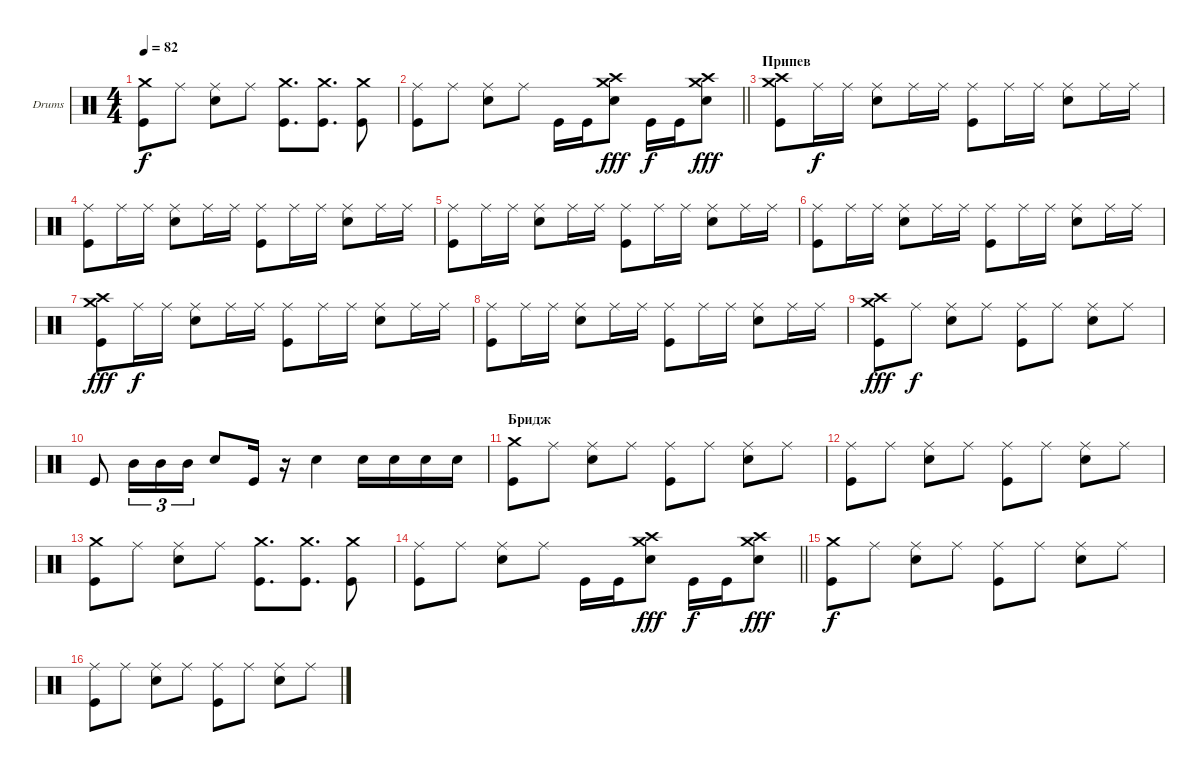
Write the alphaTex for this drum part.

\bracketExtendMode groupsimilarinstruments
\firstSystemTrackNameOrientation horizontal
\otherSystemsTrackNameOrientation horizontal
\track ("Александр Манякин" "Drums") {instrument percussion}
\staff {score}
\articulation defaults
\ts (4 4)
\tempo 82
\clef neutral
\ks c
("Kick (hit)" "Crash medium (hit)").8{dy f} "Ride (middle)".8 ("Snare (hit) 2" "Ride (middle)").8 "Ride (middle)".8 ("Kick (hit)" "Crash medium (hit)").8{d} ("Kick (hit)" "Crash medium (hit)").8{d} ("Kick (hit)" "Crash medium (hit)").8 |
\barLineRight lightlight
("Kick (hit)" "Ride (middle)").8 "Ride (middle)".8 ("Snare (hit) 2" "Ride (middle)").8 "Ride (middle)".8 "Kick (hit)".16 "Kick (hit)".16 ("Snare (hit) 2" "Crash medium (hit)" "Crash high (hit)").8{dy fff} "Kick (hit)".16{dy f} "Kick (hit)".16 ("Snare (hit) 2" "Crash medium (hit)" "Crash high (hit)").8{dy fff} |
\section ("" "Припев")
("Kick (hit)" "Crash medium (hit)" "Crash high (hit)").8 "Ride (middle)".16{dy f} "Ride (middle)".16 ("Snare (hit) 2" "Ride (middle)").8 "Ride (middle)".16 "Ride (middle)".16 ("Kick (hit)" "Ride (middle)").8 "Ride (middle)".16 "Ride (middle)".16 ("Snare (hit) 2" "Ride (middle)").8 "Ride (middle)".16 "Ride (middle)".16 |
("Kick (hit)" "Ride (middle)").8 "Ride (middle)".16 "Ride (middle)".16 ("Snare (hit) 2" "Ride (middle)").8 "Ride (middle)".16 "Ride (middle)".16 ("Kick (hit)" "Ride (middle)").8 "Ride (middle)".16 "Ride (middle)".16 ("Snare (hit) 2" "Ride (middle)").8 "Ride (middle)".16 "Ride (middle)".16 |
("Kick (hit)" "Ride (middle)").8 "Ride (middle)".16 "Ride (middle)".16 ("Snare (hit) 2" "Ride (middle)").8 "Ride (middle)".16 "Ride (middle)".16 ("Kick (hit)" "Ride (middle)").8 "Ride (middle)".16 "Ride (middle)".16 ("Snare (hit) 2" "Ride (middle)").8 "Ride (middle)".16 "Ride (middle)".16 |
("Kick (hit)" "Ride (middle)").8 "Ride (middle)".16 "Ride (middle)".16 ("Snare (hit) 2" "Ride (middle)").8 "Ride (middle)".16 "Ride (middle)".16 ("Kick (hit)" "Ride (middle)").8 "Ride (middle)".16 "Ride (middle)".16 ("Snare (hit) 2" "Ride (middle)").8 "Ride (middle)".16 "Ride (middle)".16 |
("Kick (hit)" "Crash medium (hit)" "Crash high (hit)").8{dy fff} "Ride (middle)".16{dy f} "Ride (middle)".16 ("Snare (hit) 2" "Ride (middle)").8 "Ride (middle)".16 "Ride (middle)".16 ("Kick (hit)" "Ride (middle)").8 "Ride (middle)".16 "Ride (middle)".16 ("Snare (hit) 2" "Ride (middle)").8 "Ride (middle)".16 "Ride (middle)".16 |
("Kick (hit)" "Ride (middle)").8 "Ride (middle)".16 "Ride (middle)".16 ("Snare (hit) 2" "Ride (middle)").8 "Ride (middle)".16 "Ride (middle)".16 ("Kick (hit)" "Ride (middle)").8 "Ride (middle)".16 "Ride (middle)".16 ("Snare (hit) 2" "Ride (middle)").8 "Ride (middle)".16 "Ride (middle)".16 |
("Kick (hit)" "Crash medium (hit)" "Crash high (hit)").8{dy fff} "Ride (middle)".8{dy f} ("Snare (hit) 2" "Ride (middle)").8 "Ride (middle)".8 ("Kick (hit)" "Ride (middle)").8 "Ride (middle)".8 ("Snare (hit) 2" "Ride (middle)").8 "Ride (middle)".8 |
"Kick (hit)".8 "Mid Tom (hit)".16{tu (3 2)} "Mid Tom (hit)".16{tu (3 2)} "Mid Tom (hit)".16{tu (3 2)} "Snare (hit) 2".8 "Kick (hit)".16 r.16 "Snare (hit) 2".4 "Snare (hit) 2".16 "Snare (hit) 2".16 "Snare (hit) 2".16 "Snare (hit) 2".16 |
\section ("" "Бридж")
("Kick (hit)" "Crash medium (hit)").8 "Ride (middle)".8 ("Snare (hit) 2" "Ride (middle)").8 "Ride (middle)".8 ("Kick (hit)" "Ride (middle)").8 "Ride (middle)".8 ("Snare (hit) 2" "Ride (middle)").8 "Ride (middle)".8 |
("Kick (hit)" "Ride (middle)").8 "Ride (middle)".8 ("Snare (hit) 2" "Ride (middle)").8 "Ride (middle)".8 ("Kick (hit)" "Ride (middle)").8 "Ride (middle)".8 ("Snare (hit) 2" "Ride (middle)").8 "Ride (middle)".8 |
("Kick (hit)" "Crash medium (hit)").8 "Ride (middle)".8 ("Snare (hit) 2" "Ride (middle)").8 "Ride (middle)".8 ("Kick (hit)" "Crash medium (hit)").8{d} ("Kick (hit)" "Crash medium (hit)").8{d} ("Kick (hit)" "Crash medium (hit)").8 |
\barLineRight lightlight
("Kick (hit)" "Ride (middle)").8 "Ride (middle)".8 ("Snare (hit) 2" "Ride (middle)").8 "Ride (middle)".8 "Kick (hit)".16 "Kick (hit)".16 ("Snare (hit) 2" "Crash medium (hit)" "Crash high (hit)").8{dy fff} "Kick (hit)".16{dy f} "Kick (hit)".16 ("Snare (hit) 2" "Crash medium (hit)" "Crash high (hit)").8{dy fff} |
("Kick (hit)" "Crash medium (hit)").8{dy f} "Ride (middle)".8 ("Snare (hit) 2" "Ride (middle)").8 "Ride (middle)".8 ("Kick (hit)" "Ride (middle)").8 "Ride (middle)".8 ("Snare (hit) 2" "Ride (middle)").8 "Ride (middle)".8 |
("Kick (hit)" "Ride (middle)").8 "Ride (middle)".8 ("Snare (hit) 2" "Ride (middle)").8 "Ride (middle)".8 ("Kick (hit)" "Ride (middle)").8 "Ride (middle)".8 ("Snare (hit) 2" "Ride (middle)").8 "Ride (middle)".8
